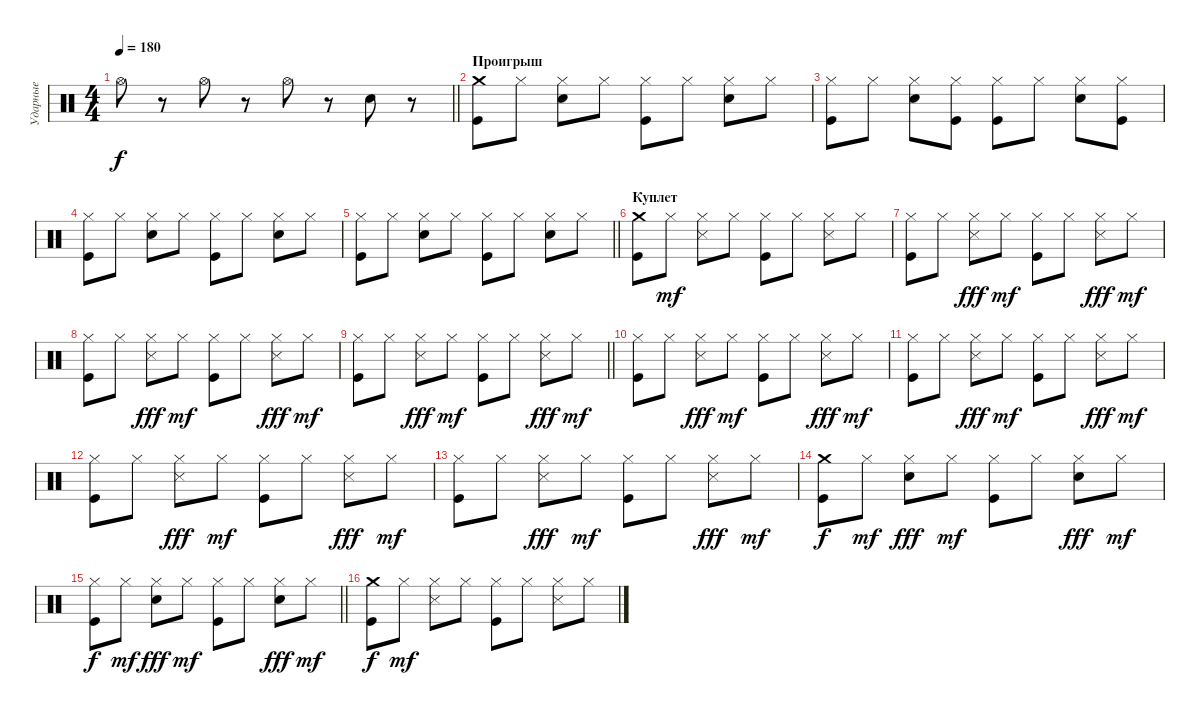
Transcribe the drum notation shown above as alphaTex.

\track ("Ударные" "Ударные") {instrument percussion}
\staff {score}
\articulation defaults
\ts (4 4)
\tempo 180
\clef neutral
\barLineRight lightlight
\ks c "Hi-Hat (open)".8{dy f}
r.8 "Hi-Hat (open)".8 r.8 "Hi-Hat (open)".8 r.8 "Electric Snare (hit)".8 r.8 |
\section ("" "Проигрыш")
("Crash medium (hit)" "Kick (hit)").8 "Hi-Hat (closed)".8 ("Hi-Hat (closed)" "Electric Snare (hit)").8 "Hi-Hat (closed)".8 ("Hi-Hat (closed)" "Kick (hit)").8 "Hi-Hat (closed)".8 ("Hi-Hat (closed)" "Electric Snare (hit)").8 "Hi-Hat (closed)".8 |
("Hi-Hat (closed)" "Kick (hit)").8 "Hi-Hat (closed)".8 ("Hi-Hat (closed)" "Electric Snare (hit)").8 ("Hi-Hat (closed)" "Kick (hit)").8 ("Hi-Hat (closed)" "Kick (hit)").8 "Hi-Hat (closed)".8 ("Hi-Hat (closed)" "Electric Snare (hit)").8 ("Hi-Hat (closed)" "Kick (hit)").8 |
("Hi-Hat (closed)" "Kick (hit)").8 "Hi-Hat (closed)".8 ("Hi-Hat (closed)" "Electric Snare (hit)").8 "Hi-Hat (closed)".8 ("Hi-Hat (closed)" "Kick (hit)").8 "Hi-Hat (closed)".8 ("Hi-Hat (closed)" "Electric Snare (hit)").8 "Hi-Hat (closed)".8 |
\barLineRight lightlight
("Hi-Hat (closed)" "Kick (hit)").8 "Hi-Hat (closed)".8 ("Hi-Hat (closed)" "Electric Snare (hit)").8 "Hi-Hat (closed)".8 ("Hi-Hat (closed)" "Kick (hit)").8 "Hi-Hat (closed)".8 ("Hi-Hat (closed)" "Electric Snare (hit)").8 "Hi-Hat (closed)".8 |
\section ("" "Куплет")
("Crash medium (hit)" "Kick (hit)").8 "Hi-Hat (closed)".8{dy mf} ("Hi-Hat (closed)" "Metronome (hit)").8 "Hi-Hat (closed)".8 ("Hi-Hat (closed)" "Kick (hit)").8 "Hi-Hat (closed)".8 ("Hi-Hat (closed)" "Metronome (hit)").8 "Hi-Hat (closed)".8 |
("Hi-Hat (closed)" "Kick (hit)").8 "Hi-Hat (closed)".8 ("Hi-Hat (closed)" "Metronome (hit)").8{dy fff} "Hi-Hat (closed)".8{dy mf} ("Hi-Hat (closed)" "Kick (hit)").8 "Hi-Hat (closed)".8 ("Hi-Hat (closed)" "Metronome (hit)").8{dy fff} "Hi-Hat (closed)".8{dy mf} |
("Hi-Hat (closed)" "Kick (hit)").8 "Hi-Hat (closed)".8 ("Hi-Hat (closed)" "Metronome (hit)").8{dy fff} "Hi-Hat (closed)".8{dy mf} ("Hi-Hat (closed)" "Kick (hit)").8 "Hi-Hat (closed)".8 ("Hi-Hat (closed)" "Metronome (hit)").8{dy fff} "Hi-Hat (closed)".8{dy mf} |
\barLineRight lightlight
("Hi-Hat (closed)" "Kick (hit)").8 "Hi-Hat (closed)".8 ("Hi-Hat (closed)" "Metronome (hit)").8{dy fff} "Hi-Hat (closed)".8{dy mf} ("Hi-Hat (closed)" "Kick (hit)").8 "Hi-Hat (closed)".8 ("Hi-Hat (closed)" "Metronome (hit)").8{dy fff} "Hi-Hat (closed)".8{dy mf} |
("Hi-Hat (closed)" "Kick (hit)").8 "Hi-Hat (closed)".8 ("Hi-Hat (closed)" "Metronome (hit)").8{dy fff} "Hi-Hat (closed)".8{dy mf} ("Hi-Hat (closed)" "Kick (hit)").8 "Hi-Hat (closed)".8 ("Hi-Hat (closed)" "Metronome (hit)").8{dy fff} "Hi-Hat (closed)".8{dy mf} |
("Hi-Hat (closed)" "Kick (hit)").8 "Hi-Hat (closed)".8 ("Hi-Hat (closed)" "Metronome (hit)").8{dy fff} "Hi-Hat (closed)".8{dy mf} ("Hi-Hat (closed)" "Kick (hit)").8 "Hi-Hat (closed)".8 ("Hi-Hat (closed)" "Metronome (hit)").8{dy fff} "Hi-Hat (closed)".8{dy mf} |
("Hi-Hat (closed)" "Kick (hit)").8 "Hi-Hat (closed)".8 ("Hi-Hat (closed)" "Metronome (hit)").8{dy fff} "Hi-Hat (closed)".8{dy mf} ("Hi-Hat (closed)" "Kick (hit)").8 "Hi-Hat (closed)".8 ("Hi-Hat (closed)" "Metronome (hit)").8{dy fff} "Hi-Hat (closed)".8{dy mf} |
("Hi-Hat (closed)" "Kick (hit)").8 "Hi-Hat (closed)".8 ("Hi-Hat (closed)" "Metronome (hit)").8{dy fff} "Hi-Hat (closed)".8{dy mf} ("Hi-Hat (closed)" "Kick (hit)").8 "Hi-Hat (closed)".8 ("Hi-Hat (closed)" "Metronome (hit)").8{dy fff} "Hi-Hat (closed)".8{dy mf} |
("Crash medium (hit)" "Kick (hit)").8{dy f} "Hi-Hat (closed)".8{dy mf} ("Hi-Hat (closed)" "Electric Snare (hit)").8{dy fff} "Hi-Hat (closed)".8{dy mf} ("Hi-Hat (closed)" "Kick (hit)").8 "Hi-Hat (closed)".8 ("Hi-Hat (closed)" "Electric Snare (hit)").8{dy fff} "Hi-Hat (closed)".8{dy mf} |
\barLineRight lightlight
("Hi-Hat (closed)" "Kick (hit)").8{dy f} "Hi-Hat (closed)".8{dy mf} ("Hi-Hat (closed)" "Electric Snare (hit)").8{dy fff} "Hi-Hat (closed)".8{dy mf} ("Hi-Hat (closed)" "Kick (hit)").8 "Hi-Hat (closed)".8 ("Hi-Hat (closed)" "Electric Snare (hit)").8{dy fff} "Hi-Hat (closed)".8{dy mf} |
\section ("" " ")
("Crash medium (hit)" "Kick (hit)").8{dy f} "Hi-Hat (closed)".8{dy mf} ("Hi-Hat (closed)" "Metronome (hit)").8 "Hi-Hat (closed)".8 ("Hi-Hat (closed)" "Kick (hit)").8 "Hi-Hat (closed)".8 ("Hi-Hat (closed)" "Metronome (hit)").8 "Hi-Hat (closed)".8
